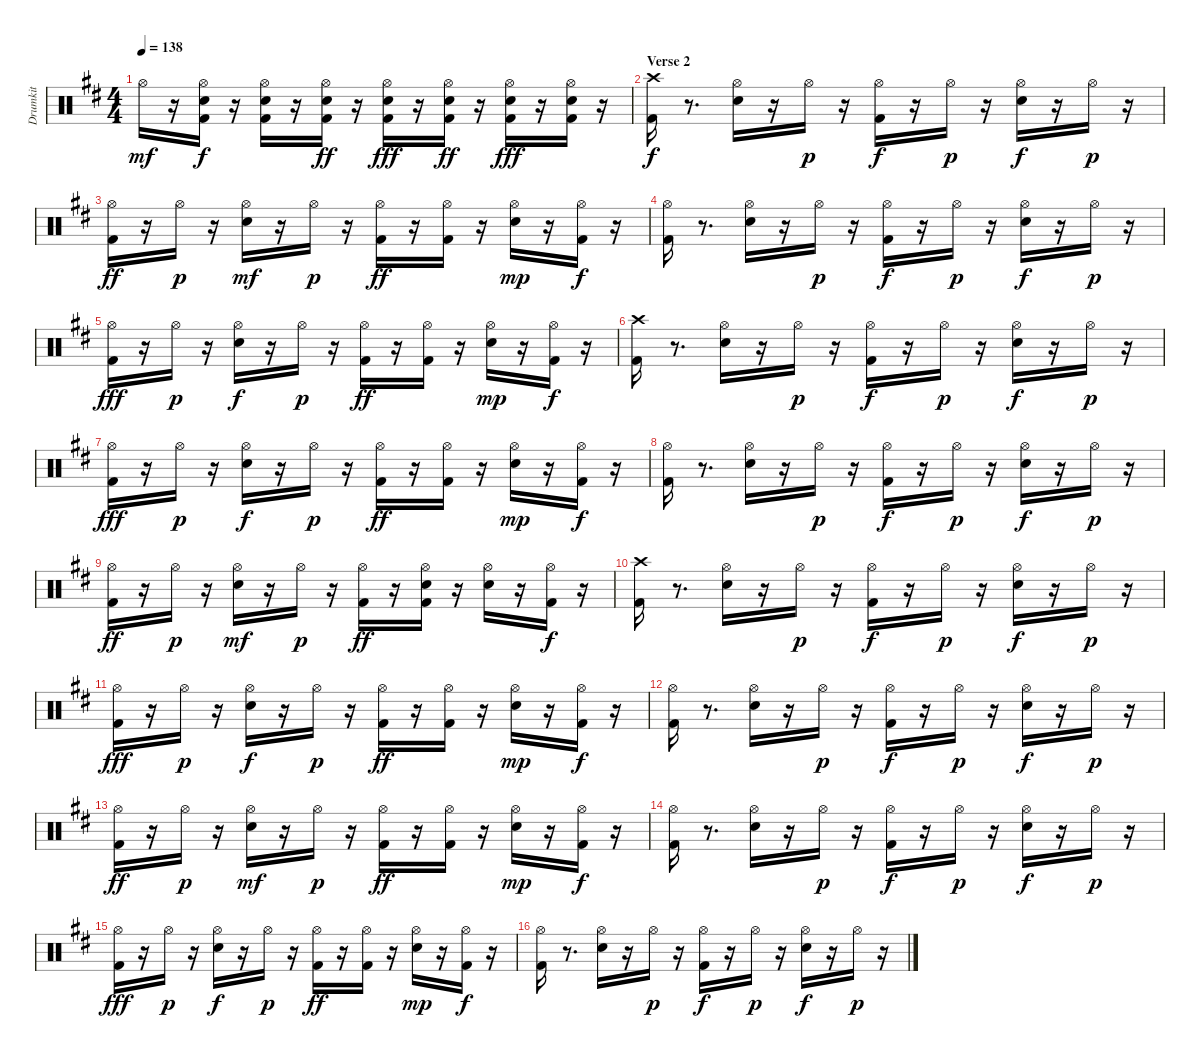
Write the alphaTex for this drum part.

\track ("Drumkit" "Drumkit") {instrument percussion}
\staff {score}
\articulation defaults
\ts (4 4)
\tempo 138
\clef neutral
\ks d "Hi-Hat (open)".16{dy mf}
r.16 ("Kick (hit) 2" "Snare (hit) 2" "Hi-Hat (open)").16{dy f} r.16 ("Kick (hit) 2" "Snare (hit) 2" "Hi-Hat (open)").16 r.16 ("Kick (hit) 2" "Snare (hit) 2" "Hi-Hat (open)").16{dy ff} r.16 ("Kick (hit) 2" "Snare (hit) 2" "Hi-Hat (open)").16{dy fff} r.16 ("Kick (hit) 2" "Snare (hit) 2" "Hi-Hat (open)").16{dy ff} r.16 ("Kick (hit) 2" "Snare (hit) 2" "Hi-Hat (open)").16{dy fff} r.16 ("Kick (hit) 2" "Snare (hit) 2" "Hi-Hat (open)").16 r.16 |
\section ("" "Verse 2")
("Kick (hit) 2" "Crash high (hit)").16{dy f} r.8{d} ("Snare (hit) 2" "Hi-Hat (open)").16 r.16 "Hi-Hat (open)".16{dy p} r.16 ("Kick (hit) 2" "Hi-Hat (open)").16{dy f} r.16 "Hi-Hat (open)".16{dy p} r.16 ("Snare (hit) 2" "Hi-Hat (open)").16{dy f} r.16 "Hi-Hat (open)".16{dy p} r.16 |
("Kick (hit) 2" "Hi-Hat (open)").16{dy ff} r.16 "Hi-Hat (open)".16{dy p} r.16 ("Snare (hit) 2" "Hi-Hat (open)").16{dy mf} r.16 "Hi-Hat (open)".16{dy p} r.16 ("Kick (hit) 2" "Hi-Hat (open)").16{dy ff} r.16 ("Kick (hit) 2" "Hi-Hat (open)").16 r.16 ("Snare (hit) 2" "Hi-Hat (open)").16{dy mp} r.16 ("Kick (hit) 2" "Hi-Hat (open)").16{dy f} r.16 |
("Kick (hit) 2" "Hi-Hat (open)").16 r.8{d} ("Snare (hit) 2" "Hi-Hat (open)").16 r.16 "Hi-Hat (open)".16{dy p} r.16 ("Kick (hit) 2" "Hi-Hat (open)").16{dy f} r.16 "Hi-Hat (open)".16{dy p} r.16 ("Snare (hit) 2" "Hi-Hat (open)").16{dy f} r.16 "Hi-Hat (open)".16{dy p} r.16 |
("Kick (hit) 2" "Hi-Hat (open)").16{dy fff} r.16 "Hi-Hat (open)".16{dy p} r.16 ("Snare (hit) 2" "Hi-Hat (open)").16{dy f} r.16 "Hi-Hat (open)".16{dy p} r.16 ("Kick (hit) 2" "Hi-Hat (open)").16{dy ff} r.16 ("Kick (hit) 2" "Hi-Hat (open)").16 r.16 ("Snare (hit) 2" "Hi-Hat (open)").16{dy mp} r.16 ("Kick (hit) 2" "Hi-Hat (open)").16{dy f} r.16 |
("Kick (hit) 2" "Crash high (hit)").16 r.8{d} ("Snare (hit) 2" "Hi-Hat (open)").16 r.16 "Hi-Hat (open)".16{dy p} r.16 ("Kick (hit) 2" "Hi-Hat (open)").16{dy f} r.16 "Hi-Hat (open)".16{dy p} r.16 ("Snare (hit) 2" "Hi-Hat (open)").16{dy f} r.16 "Hi-Hat (open)".16{dy p} r.16 |
("Kick (hit) 2" "Hi-Hat (open)").16{dy fff} r.16 "Hi-Hat (open)".16{dy p} r.16 ("Snare (hit) 2" "Hi-Hat (open)").16{dy f} r.16 "Hi-Hat (open)".16{dy p} r.16 ("Kick (hit) 2" "Hi-Hat (open)").16{dy ff} r.16 ("Kick (hit) 2" "Hi-Hat (open)").16 r.16 ("Snare (hit) 2" "Hi-Hat (open)").16{dy mp} r.16 ("Kick (hit) 2" "Hi-Hat (open)").16{dy f} r.16 |
("Kick (hit) 2" "Hi-Hat (open)").16 r.8{d} ("Snare (hit) 2" "Hi-Hat (open)").16 r.16 "Hi-Hat (open)".16{dy p} r.16 ("Kick (hit) 2" "Hi-Hat (open)").16{dy f} r.16 "Hi-Hat (open)".16{dy p} r.16 ("Snare (hit) 2" "Hi-Hat (open)").16{dy f} r.16 "Hi-Hat (open)".16{dy p} r.16 |
("Kick (hit) 2" "Hi-Hat (open)").16{dy ff} r.16 "Hi-Hat (open)".16{dy p} r.16 ("Snare (hit) 2" "Hi-Hat (open)").16{dy mf} r.16 "Hi-Hat (open)".16{dy p} r.16 ("Kick (hit) 2" "Hi-Hat (open)").16{dy ff} r.16 ("Kick (hit) 2" "Snare (hit) 2" "Hi-Hat (open)").16 r.16 ("Snare (hit) 2" "Hi-Hat (open)").16 r.16 ("Kick (hit) 2" "Hi-Hat (open)").16{dy f} r.16 |
("Kick (hit) 2" "Crash high (hit)").16 r.8{d} ("Snare (hit) 2" "Hi-Hat (open)").16 r.16 "Hi-Hat (open)".16{dy p} r.16 ("Kick (hit) 2" "Hi-Hat (open)").16{dy f} r.16 "Hi-Hat (open)".16{dy p} r.16 ("Snare (hit) 2" "Hi-Hat (open)").16{dy f} r.16 "Hi-Hat (open)".16{dy p} r.16 |
("Kick (hit) 2" "Hi-Hat (open)").16{dy fff} r.16 "Hi-Hat (open)".16{dy p} r.16 ("Snare (hit) 2" "Hi-Hat (open)").16{dy f} r.16 "Hi-Hat (open)".16{dy p} r.16 ("Kick (hit) 2" "Hi-Hat (open)").16{dy ff} r.16 ("Kick (hit) 2" "Hi-Hat (open)").16 r.16 ("Snare (hit) 2" "Hi-Hat (open)").16{dy mp} r.16 ("Kick (hit) 2" "Hi-Hat (open)").16{dy f} r.16 |
("Kick (hit) 2" "Hi-Hat (open)").16 r.8{d} ("Snare (hit) 2" "Hi-Hat (open)").16 r.16 "Hi-Hat (open)".16{dy p} r.16 ("Kick (hit) 2" "Hi-Hat (open)").16{dy f} r.16 "Hi-Hat (open)".16{dy p} r.16 ("Snare (hit) 2" "Hi-Hat (open)").16{dy f} r.16 "Hi-Hat (open)".16{dy p} r.16 |
("Kick (hit) 2" "Hi-Hat (open)").16{dy ff} r.16 "Hi-Hat (open)".16{dy p} r.16 ("Snare (hit) 2" "Hi-Hat (open)").16{dy mf} r.16 "Hi-Hat (open)".16{dy p} r.16 ("Kick (hit) 2" "Hi-Hat (open)").16{dy ff} r.16 ("Kick (hit) 2" "Hi-Hat (open)").16 r.16 ("Snare (hit) 2" "Hi-Hat (open)").16{dy mp} r.16 ("Kick (hit) 2" "Hi-Hat (open)").16{dy f} r.16 |
("Kick (hit) 2" "Hi-Hat (open)").16 r.8{d} ("Snare (hit) 2" "Hi-Hat (open)").16 r.16 "Hi-Hat (open)".16{dy p} r.16 ("Kick (hit) 2" "Hi-Hat (open)").16{dy f} r.16 "Hi-Hat (open)".16{dy p} r.16 ("Snare (hit) 2" "Hi-Hat (open)").16{dy f} r.16 "Hi-Hat (open)".16{dy p} r.16 |
("Kick (hit) 2" "Hi-Hat (open)").16{dy fff} r.16 "Hi-Hat (open)".16{dy p} r.16 ("Snare (hit) 2" "Hi-Hat (open)").16{dy f} r.16 "Hi-Hat (open)".16{dy p} r.16 ("Kick (hit) 2" "Hi-Hat (open)").16{dy ff} r.16 ("Kick (hit) 2" "Hi-Hat (open)").16 r.16 ("Snare (hit) 2" "Hi-Hat (open)").16{dy mp} r.16 ("Kick (hit) 2" "Hi-Hat (open)").16{dy f} r.16 |
("Kick (hit) 2" "Hi-Hat (open)").16 r.8{d} ("Snare (hit) 2" "Hi-Hat (open)").16 r.16 "Hi-Hat (open)".16{dy p} r.16 ("Kick (hit) 2" "Hi-Hat (open)").16{dy f} r.16 "Hi-Hat (open)".16{dy p} r.16 ("Snare (hit) 2" "Hi-Hat (open)").16{dy f} r.16 "Hi-Hat (open)".16{dy p} r.16
